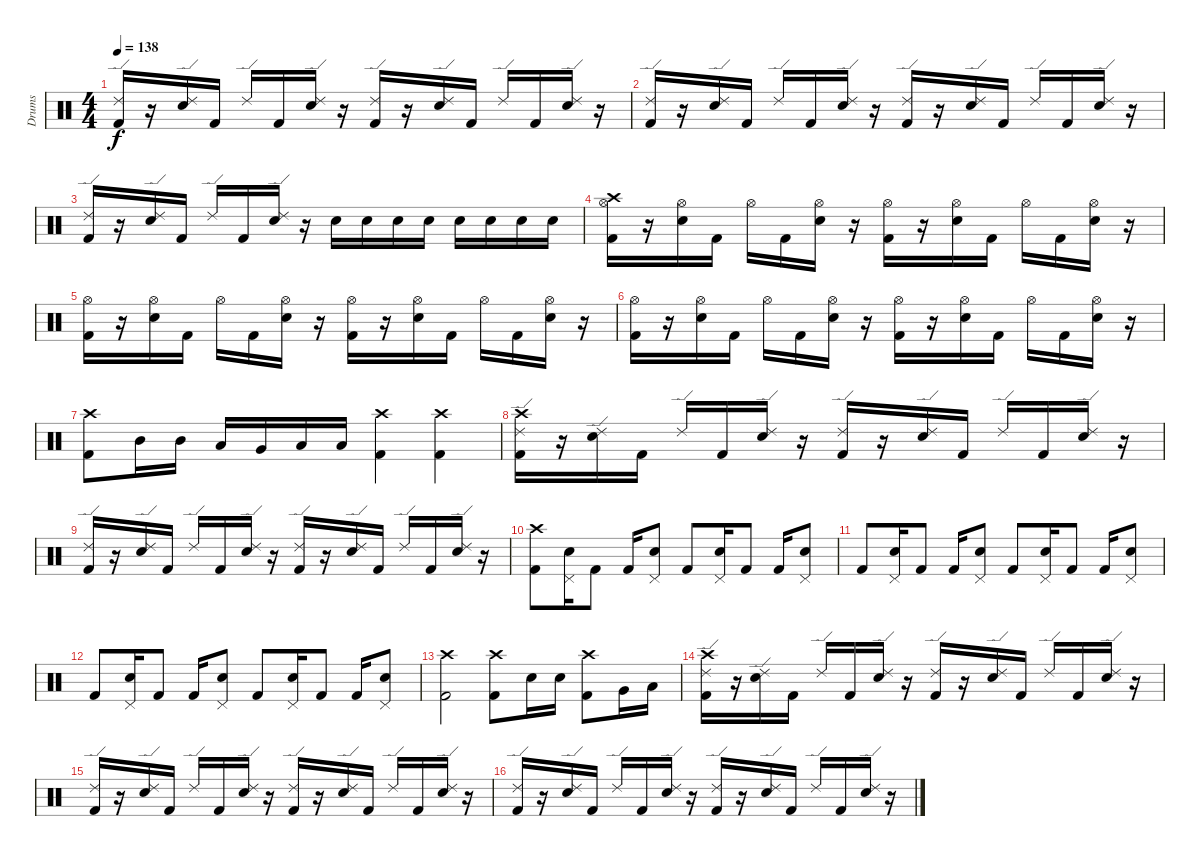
\track ("Drums" "Drums") {instrument percussion}
\staff {score}
\articulation defaults
\ts (4 4)
\tempo 138
\clef neutral
\ks c
("Ride (edge) 2" "Kick (hit) 2").16{dy f} r.16 ("Ride (edge) 2" "Snare (hit) 2").16 "Kick (hit) 2".16 "Ride (edge) 2".16 "Kick (hit) 2".16 ("Ride (edge) 2" "Snare (hit) 2").16 r.16 ("Ride (edge) 2" "Kick (hit) 2").16 r.16 ("Ride (edge) 2" "Snare (hit) 2").16 "Kick (hit) 2".16 "Ride (edge) 2".16 "Kick (hit) 2".16 ("Ride (edge) 2" "Snare (hit) 2").16 r.16 |
("Ride (edge) 2" "Kick (hit) 2").16 r.16 ("Ride (edge) 2" "Snare (hit) 2").16 "Kick (hit) 2".16 "Ride (edge) 2".16 "Kick (hit) 2".16 ("Ride (edge) 2" "Snare (hit) 2").16 r.16 ("Ride (edge) 2" "Kick (hit) 2").16 r.16 ("Ride (edge) 2" "Snare (hit) 2").16 "Kick (hit) 2".16 "Ride (edge) 2".16 "Kick (hit) 2".16 ("Ride (edge) 2" "Snare (hit) 2").16 r.16 |
("Ride (edge) 2" "Kick (hit) 2").16 r.16 ("Ride (edge) 2" "Snare (hit) 2").16 "Kick (hit) 2".16 "Ride (edge) 2".16 "Kick (hit) 2".16 ("Ride (edge) 2" "Snare (hit) 2").16 r.16 "Snare (hit) 2".16 "Snare (hit) 2".16 "Snare (hit) 2".16 "Snare (hit) 2".16 "Snare (hit) 2".16 "Snare (hit) 2".16 "Snare (hit) 2".16 "Snare (hit) 2".16 |
("Crash high (hit)" "Hi-Hat (open)" "Kick (hit) 2").16 r.16 ("Hi-Hat (open)" "Snare (hit) 2").16 "Kick (hit) 2".16 "Hi-Hat (open)".16 "Kick (hit) 2".16 ("Hi-Hat (open)" "Snare (hit) 2").16 r.16 ("Hi-Hat (open)" "Kick (hit) 2").16 r.16 ("Hi-Hat (open)" "Snare (hit) 2").16 "Kick (hit) 2".16 "Hi-Hat (open)".16 "Kick (hit) 2".16 ("Hi-Hat (open)" "Snare (hit) 2").16 r.16 |
("Hi-Hat (open)" "Kick (hit) 2").16 r.16 ("Hi-Hat (open)" "Snare (hit) 2").16 "Kick (hit) 2".16 "Hi-Hat (open)".16 "Kick (hit) 2".16 ("Hi-Hat (open)" "Snare (hit) 2").16 r.16 ("Hi-Hat (open)" "Kick (hit) 2").16 r.16 ("Hi-Hat (open)" "Snare (hit) 2").16 "Kick (hit) 2".16 "Hi-Hat (open)".16 "Kick (hit) 2".16 ("Hi-Hat (open)" "Snare (hit) 2").16 r.16 |
("Hi-Hat (open)" "Kick (hit) 2").16 r.16 ("Hi-Hat (open)" "Snare (hit) 2").16 "Kick (hit) 2".16 "Hi-Hat (open)".16 "Kick (hit) 2".16 ("Hi-Hat (open)" "Snare (hit) 2").16 r.16 ("Hi-Hat (open)" "Kick (hit) 2").16 r.16 ("Hi-Hat (open)" "Snare (hit) 2").16 "Kick (hit) 2".16 "Hi-Hat (open)".16 "Kick (hit) 2".16 ("Hi-Hat (open)" "Snare (hit) 2").16 r.16 |
("Crash high (hit)" "Kick (hit) 2").8 "Mid Tom (hit)".16 "Mid Tom (hit)".16 "Low Tom (hit)".16 "Very Low Tom (hit)".16 "Low Floor Tom (hit)".16 "Low Floor Tom (hit)".16 ("Crash high (hit)" "Kick (hit) 2").4 ("Crash high (hit)" "Kick (hit) 2").4 |
("Crash high (hit)" "Ride (edge) 2" "Kick (hit) 2").16 r.16 ("Ride (edge) 2" "Snare (hit) 2").16 "Kick (hit) 2".16 "Ride (edge) 2".16 "Kick (hit) 2".16 ("Ride (edge) 2" "Snare (hit) 2").16 r.16 ("Ride (edge) 2" "Kick (hit) 2").16 r.16 ("Ride (edge) 2" "Snare (hit) 2").16 "Kick (hit) 2".16 "Ride (edge) 2".16 "Kick (hit) 2".16 ("Ride (edge) 2" "Snare (hit) 2").16 r.16 |
("Ride (edge) 2" "Kick (hit) 2").16 r.16 ("Ride (edge) 2" "Snare (hit) 2").16 "Kick (hit) 2".16 "Ride (edge) 2".16 "Kick (hit) 2".16 ("Ride (edge) 2" "Snare (hit) 2").16 r.16 ("Ride (edge) 2" "Kick (hit) 2").16 r.16 ("Ride (edge) 2" "Snare (hit) 2").16 "Kick (hit) 2".16 "Ride (edge) 2".16 "Kick (hit) 2".16 ("Ride (edge) 2" "Snare (hit) 2").16 r.16 |
("Crash high (hit)" "Kick (hit) 2").8 ("Pedal Hi-Hat (hit)" "Snare (hit) 2").16 "Kick (hit) 2".8 "Kick (hit) 2".16 ("Pedal Hi-Hat (hit)" "Snare (hit) 2").8 "Kick (hit) 2".8 ("Pedal Hi-Hat (hit)" "Snare (hit) 2").16 "Kick (hit) 2".8 "Kick (hit) 2".16 ("Pedal Hi-Hat (hit)" "Snare (hit) 2").8 |
"Kick (hit) 2".8 ("Pedal Hi-Hat (hit)" "Snare (hit) 2").16 "Kick (hit) 2".8 "Kick (hit) 2".16 ("Pedal Hi-Hat (hit)" "Snare (hit) 2").8 "Kick (hit) 2".8 ("Pedal Hi-Hat (hit)" "Snare (hit) 2").16 "Kick (hit) 2".8 "Kick (hit) 2".16 ("Pedal Hi-Hat (hit)" "Snare (hit) 2").8 |
"Kick (hit) 2".8 ("Pedal Hi-Hat (hit)" "Snare (hit) 2").16 "Kick (hit) 2".8 "Kick (hit) 2".16 ("Pedal Hi-Hat (hit)" "Snare (hit) 2").8 "Kick (hit) 2".8 ("Pedal Hi-Hat (hit)" "Snare (hit) 2").16 "Kick (hit) 2".8 "Kick (hit) 2".16 ("Pedal Hi-Hat (hit)" "Snare (hit) 2").8 |
("Crash high (hit)" "Kick (hit) 2").2 ("Crash high (hit)" "Kick (hit) 2").8 "Snare (hit) 2".16 "Snare (hit) 2".16 ("Crash high (hit)" "Kick (hit) 2").8 "Very Low Tom (hit)".16 "Low Floor Tom (hit)".16 |
("Crash high (hit)" "Ride (edge) 2" "Kick (hit) 2").16 r.16 ("Ride (edge) 2" "Snare (hit) 2").16 "Kick (hit) 2".16 "Ride (edge) 2".16 "Kick (hit) 2".16 ("Ride (edge) 2" "Snare (hit) 2").16 r.16 ("Ride (edge) 2" "Kick (hit) 2").16 r.16 ("Ride (edge) 2" "Snare (hit) 2").16 "Kick (hit) 2".16 "Ride (edge) 2".16 "Kick (hit) 2".16 ("Ride (edge) 2" "Snare (hit) 2").16 r.16 |
("Ride (edge) 2" "Kick (hit) 2").16 r.16 ("Ride (edge) 2" "Snare (hit) 2").16 "Kick (hit) 2".16 "Ride (edge) 2".16 "Kick (hit) 2".16 ("Ride (edge) 2" "Snare (hit) 2").16 r.16 ("Ride (edge) 2" "Kick (hit) 2").16 r.16 ("Ride (edge) 2" "Snare (hit) 2").16 "Kick (hit) 2".16 "Ride (edge) 2".16 "Kick (hit) 2".16 ("Ride (edge) 2" "Snare (hit) 2").16 r.16 |
("Ride (edge) 2" "Kick (hit) 2").16 r.16 ("Ride (edge) 2" "Snare (hit) 2").16 "Kick (hit) 2".16 "Ride (edge) 2".16 "Kick (hit) 2".16 ("Ride (edge) 2" "Snare (hit) 2").16 r.16 ("Ride (edge) 2" "Kick (hit) 2").16 r.16 ("Ride (edge) 2" "Snare (hit) 2").16 "Kick (hit) 2".16 "Ride (edge) 2".16 "Kick (hit) 2".16 ("Ride (edge) 2" "Snare (hit) 2").16 r.16
